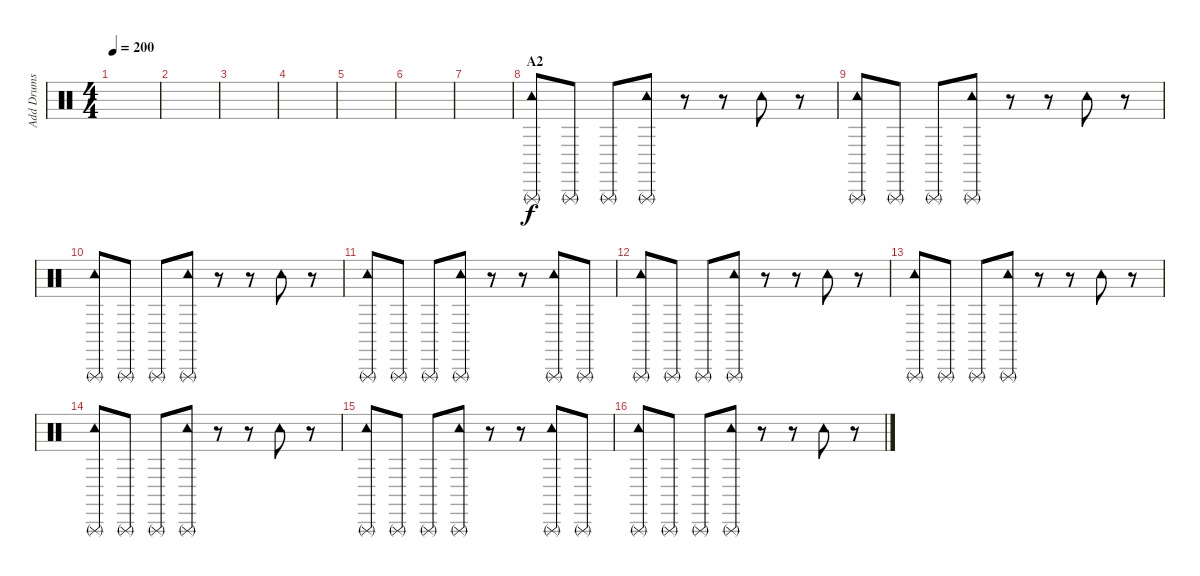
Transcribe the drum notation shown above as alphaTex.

\track ("Add Drums" "Add Drums") {instrument percussion}
\staff {score}
\articulation defaults
\ts (4 4)
\tempo 200
\clef neutral
\ks c
|
|
|
|
|
|
|
\section ("" "A2")
("Tambourine (hit)" "Triangle (rnute)").8 "Triangle (rnute)".8 "Triangle (rnute)".8 ("Tambourine (hit)" "Triangle (rnute)").8 r.8 r.8 "Tambourine (hit)".8 r.8 |
("Tambourine (hit)" "Triangle (rnute)").8 "Triangle (rnute)".8 "Triangle (rnute)".8 ("Tambourine (hit)" "Triangle (rnute)").8 r.8 r.8 "Tambourine (hit)".8 r.8 |
("Tambourine (hit)" "Triangle (rnute)").8 "Triangle (rnute)".8 "Triangle (rnute)".8 ("Tambourine (hit)" "Triangle (rnute)").8 r.8 r.8 "Tambourine (hit)".8 r.8 |
("Tambourine (hit)" "Triangle (rnute)").8 "Triangle (rnute)".8 "Triangle (rnute)".8 ("Tambourine (hit)" "Triangle (rnute)").8 r.8 r.8 ("Tambourine (hit)" "Triangle (rnute)").8 "Triangle (rnute)".8 |
("Tambourine (hit)" "Triangle (rnute)").8 "Triangle (rnute)".8 "Triangle (rnute)".8 ("Tambourine (hit)" "Triangle (rnute)").8 r.8 r.8 "Tambourine (hit)".8 r.8 |
("Tambourine (hit)" "Triangle (rnute)").8 "Triangle (rnute)".8 "Triangle (rnute)".8 ("Tambourine (hit)" "Triangle (rnute)").8 r.8 r.8 "Tambourine (hit)".8 r.8 |
("Tambourine (hit)" "Triangle (rnute)").8 "Triangle (rnute)".8 "Triangle (rnute)".8 ("Tambourine (hit)" "Triangle (rnute)").8 r.8 r.8 "Tambourine (hit)".8 r.8 |
("Tambourine (hit)" "Triangle (rnute)").8 "Triangle (rnute)".8 "Triangle (rnute)".8 ("Tambourine (hit)" "Triangle (rnute)").8 r.8 r.8 ("Tambourine (hit)" "Triangle (rnute)").8 "Triangle (rnute)".8 |
("Tambourine (hit)" "Triangle (rnute)").8 "Triangle (rnute)".8 "Triangle (rnute)".8 ("Tambourine (hit)" "Triangle (rnute)").8 r.8 r.8 "Tambourine (hit)".8 r.8
